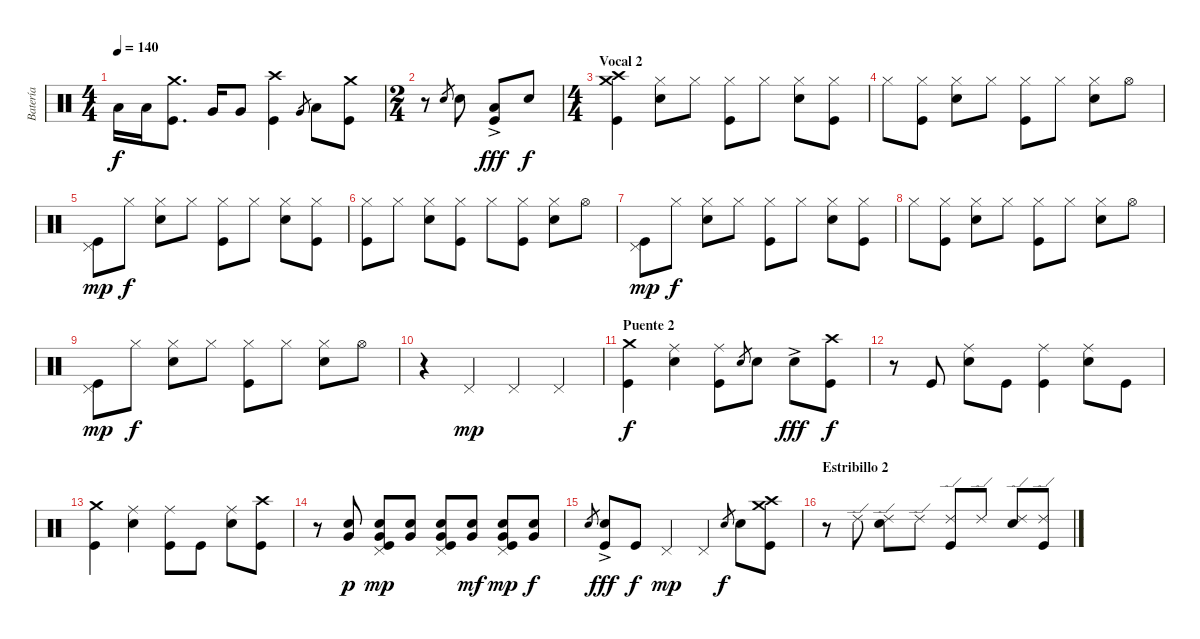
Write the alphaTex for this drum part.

\track ("Batería" "Batería") {instrument percussion}
\staff {score}
\articulation defaults
\ts (4 4)
\tempo 140
\clef neutral
\ks c "Low Tom (hit)".16{dy f} "Low Tom (hit)".16
("Kick (hit)" "Crash medium (hit)").8{d} "Very Low Tom (hit)".16 "Very Low Tom (hit)".8 ("Kick (hit)" "Crash high (hit)").4 "Very Low Tom (hit)".8{gr} "Low Floor Tom (hit)".8 ("Kick (hit)" "Crash medium (hit)").8 |
\ts (2 4)
r.8 "Electric Snare (hit)".8{gr} "Electric Snare (hit)".8 ("Kick (hit)" "Low Tom (hit)"{ac}).8{dy fff} "Electric Snare (hit)".8{dy f} |
\ts (4 4)
\section ("" "Vocal 2")
("Kick (hit)" "Crash medium (hit)" "Crash high (hit)").4 ("Electric Snare (hit)" "Hi-Hat (closed)").8 "Hi-Hat (closed)".8 ("Kick (hit)" "Hi-Hat (closed)").8 "Hi-Hat (closed)".8 ("Electric Snare (hit)" "Hi-Hat (closed)").8 ("Kick (hit)" "Hi-Hat (closed)").8 |
"Hi-Hat (closed)".8 ("Kick (hit)" "Hi-Hat (closed)").8 ("Electric Snare (hit)" "Hi-Hat (closed)").8 "Hi-Hat (closed)".8 ("Kick (hit)" "Hi-Hat (closed)").8 "Hi-Hat (closed)".8 ("Electric Snare (hit)" "Hi-Hat (closed)").8 "Hi-Hat (open)".8 |
("Kick (hit)" "Pedal Hi-Hat (hit)").8{dy mp} "Hi-Hat (closed)".8{dy f} ("Electric Snare (hit)" "Hi-Hat (closed)").8 "Hi-Hat (closed)".8 ("Kick (hit)" "Hi-Hat (closed)").8 "Hi-Hat (closed)".8 ("Electric Snare (hit)" "Hi-Hat (closed)").8 ("Kick (hit)" "Hi-Hat (closed)").8 |
("Kick (hit)" "Hi-Hat (closed)").8 "Hi-Hat (closed)".8 ("Electric Snare (hit)" "Hi-Hat (closed)").8 ("Kick (hit)" "Hi-Hat (closed)").8 "Hi-Hat (closed)".8 ("Kick (hit)" "Hi-Hat (closed)").8 ("Electric Snare (hit)" "Hi-Hat (closed)").8 "Hi-Hat (open)".8 |
("Kick (hit)" "Pedal Hi-Hat (hit)").8{dy mp} "Hi-Hat (closed)".8{dy f} ("Electric Snare (hit)" "Hi-Hat (closed)").8 "Hi-Hat (closed)".8 ("Kick (hit)" "Hi-Hat (closed)").8 "Hi-Hat (closed)".8 ("Electric Snare (hit)" "Hi-Hat (closed)").8 ("Kick (hit)" "Hi-Hat (closed)").8 |
"Hi-Hat (closed)".8 ("Kick (hit)" "Hi-Hat (closed)").8 ("Electric Snare (hit)" "Hi-Hat (closed)").8 "Hi-Hat (closed)".8 ("Kick (hit)" "Hi-Hat (closed)").8 "Hi-Hat (closed)".8 ("Electric Snare (hit)" "Hi-Hat (closed)").8 "Hi-Hat (open)".8 |
("Kick (hit)" "Pedal Hi-Hat (hit)").8{dy mp} "Hi-Hat (closed)".8{dy f} ("Electric Snare (hit)" "Hi-Hat (closed)").8 "Hi-Hat (closed)".8 ("Kick (hit)" "Hi-Hat (closed)").8 "Hi-Hat (closed)".8 ("Electric Snare (hit)" "Hi-Hat (closed)").8 "Hi-Hat (open)".8 |
r.4 "Pedal Hi-Hat (hit)".4{dy mp} "Pedal Hi-Hat (hit)".4 "Pedal Hi-Hat (hit)".4 |
\section ("" "Puente 2")
("Kick (hit)" "Crash medium (hit)").4{dy f} ("Electric Snare (hit)" "Ride (middle)").4 ("Kick (hit)" "Ride (middle)").8 "Electric Snare (hit)".8{gr} "Electric Snare (hit)".8 "Electric Snare (hit)"{ac}.8{dy fff} ("Kick (hit)" "Crash high (hit)").8{dy f} |
r.8 "Kick (hit)".8 ("Electric Snare (hit)" "Ride (middle)").8 "Kick (hit)".8 ("Kick (hit)" "Ride (middle)").4 ("Electric Snare (hit)" "Ride (middle)").8 "Kick (hit)".8 |
("Kick (hit)" "Crash medium (hit)").4 ("Electric Snare (hit)" "Ride (middle)").4 ("Kick (hit)" "Ride (middle)").8 "Kick (hit)".8 ("Electric Snare (hit)" "Ride (middle)").8 ("Kick (hit)" "Crash high (hit)").8 |
r.8 ("Electric Snare (hit)" "Very Low Tom (hit)").8{dy p} ("Kick (hit)" "Electric Snare (hit)" "Very Low Tom (hit)" "Pedal Hi-Hat (hit)").8{dy mp} ("Electric Snare (hit)" "Very Low Tom (hit)").8 ("Kick (hit)" "Electric Snare (hit)" "Very Low Tom (hit)" "Pedal Hi-Hat (hit)").8 ("Electric Snare (hit)" "Very Low Tom (hit)").8{dy mf} ("Kick (hit)" "Electric Snare (hit)" "Very Low Tom (hit)" "Pedal Hi-Hat (hit)").8{dy mp} ("Electric Snare (hit)" "Very Low Tom (hit)").8{dy f} |
"Electric Snare (hit)".8{gr} ("Kick (hit)" "Electric Snare (hit)"{ac}).8{dy fff} "Kick (hit)".8{dy f} "Pedal Hi-Hat (hit)".4{dy mp} "Pedal Hi-Hat (hit)".4 "Electric Snare (hit)".8{gr dy f} "Electric Snare (hit)".8 ("Kick (hit)" "Crash medium (hit)" "Crash high (hit)").8 |
\section ("" "Estribillo 2")
r.8 "Ride (edge) 2".8 ("Electric Snare (hit)" "Ride (edge) 2").8 "Ride (edge) 2".8 ("Kick (hit)" "Ride (edge) 2").8 "Ride (edge) 2".8 ("Electric Snare (hit)" "Ride (edge) 2").8 ("Kick (hit)" "Ride (edge) 2").8
